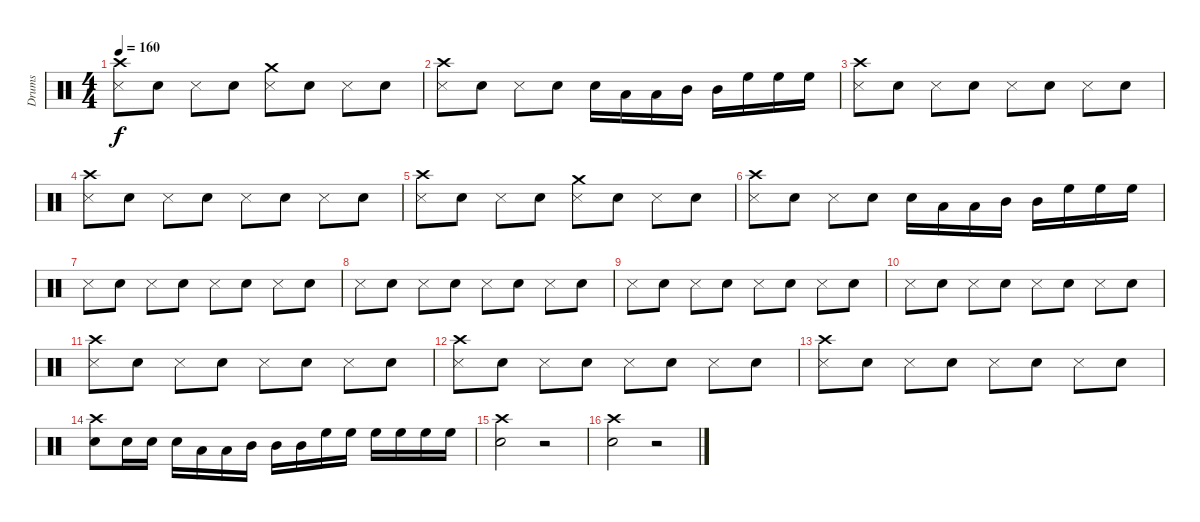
\track ("Drums " "Drums ") {instrument percussion}
\staff {score}
\articulation defaults
\ts (4 4)
\tempo 160
\clef neutral
\ks c
("Crash high (hit)" "Metronome (hit)").8{dy f} "Snare (hit) 2".8 "Metronome (hit)".8 "Snare (hit) 2".8 ("Crash medium (hit)" "Metronome (hit)").8 "Snare (hit) 2".8 "Metronome (hit)".8 "Snare (hit) 2".8 |
("Crash high (hit)" "Metronome (hit)").8 "Snare (hit) 2".8 "Metronome (hit)".8 "Snare (hit) 2".8 "Electric Snare (hit)".16 "Low Tom (hit)".16 "Low Tom (hit)".16 "Mid Tom (hit)".16 "Mid Tom (hit)".16 "High Floor Tom (hit)".16 "High Floor Tom (hit)".16 "High Floor Tom (hit)".16 |
("Crash high (hit)" "Metronome (hit)").8 "Snare (hit) 2".8 "Metronome (hit)".8 "Snare (hit) 2".8 "Metronome (hit)".8 "Snare (hit) 2".8 "Metronome (hit)".8 "Snare (hit) 2".8 |
("Crash high (hit)" "Metronome (hit)").8 "Snare (hit) 2".8 "Metronome (hit)".8 "Snare (hit) 2".8 "Metronome (hit)".8 "Snare (hit) 2".8 "Metronome (hit)".8 "Snare (hit) 2".8 |
("Crash high (hit)" "Metronome (hit)").8 "Snare (hit) 2".8 "Metronome (hit)".8 "Snare (hit) 2".8 ("Crash medium (hit)" "Metronome (hit)").8 "Snare (hit) 2".8 "Metronome (hit)".8 "Snare (hit) 2".8 |
("Crash high (hit)" "Metronome (hit)").8 "Snare (hit) 2".8 "Metronome (hit)".8 "Snare (hit) 2".8 "Electric Snare (hit)".16 "Low Tom (hit)".16 "Low Tom (hit)".16 "Mid Tom (hit)".16 "Mid Tom (hit)".16 "High Floor Tom (hit)".16 "High Floor Tom (hit)".16 "High Floor Tom (hit)".16 |
"Metronome (hit)".8 "Snare (hit) 2".8 "Metronome (hit)".8 "Snare (hit) 2".8 "Metronome (hit)".8 "Snare (hit) 2".8 "Metronome (hit)".8 "Snare (hit) 2".8 |
"Metronome (hit)".8 "Snare (hit) 2".8 "Metronome (hit)".8 "Snare (hit) 2".8 "Metronome (hit)".8 "Snare (hit) 2".8 "Metronome (hit)".8 "Snare (hit) 2".8 |
"Metronome (hit)".8 "Snare (hit) 2".8 "Metronome (hit)".8 "Snare (hit) 2".8 "Metronome (hit)".8 "Snare (hit) 2".8 "Metronome (hit)".8 "Snare (hit) 2".8 |
"Metronome (hit)".8 "Snare (hit) 2".8 "Metronome (hit)".8 "Snare (hit) 2".8 "Metronome (hit)".8 "Snare (hit) 2".8 "Metronome (hit)".8 "Snare (hit) 2".8 |
("Crash high (hit)" "Metronome (hit)").8 "Snare (hit) 2".8 "Metronome (hit)".8 "Snare (hit) 2".8 "Metronome (hit)".8 "Snare (hit) 2".8 "Metronome (hit)".8 "Snare (hit) 2".8 |
("Crash high (hit)" "Metronome (hit)").8 "Snare (hit) 2".8 "Metronome (hit)".8 "Snare (hit) 2".8 "Metronome (hit)".8 "Snare (hit) 2".8 "Metronome (hit)".8 "Snare (hit) 2".8 |
("Crash high (hit)" "Metronome (hit)").8 "Snare (hit) 2".8 "Metronome (hit)".8 "Snare (hit) 2".8 "Metronome (hit)".8 "Snare (hit) 2".8 "Metronome (hit)".8 "Snare (hit) 2".8 |
("Crash high (hit)" "Snare (hit) 2").8 "Electric Snare (hit)".16 "Electric Snare (hit)".16 "Electric Snare (hit)".16 "Low Tom (hit)".16 "Low Tom (hit)".16 "Mid Tom (hit)".16 "Mid Tom (hit)".16 "Mid Tom (hit)".16 "High Floor Tom (hit)".16 "High Floor Tom (hit)".16 "High Floor Tom (hit)".16 "High Floor Tom (hit)".16 "High Floor Tom (hit)".16 "High Floor Tom (hit)".16 |
("Crash high (hit)" "Snare (hit) 2").2 r.2 |
("Crash high (hit)" "Snare (hit) 2").2 r.2
